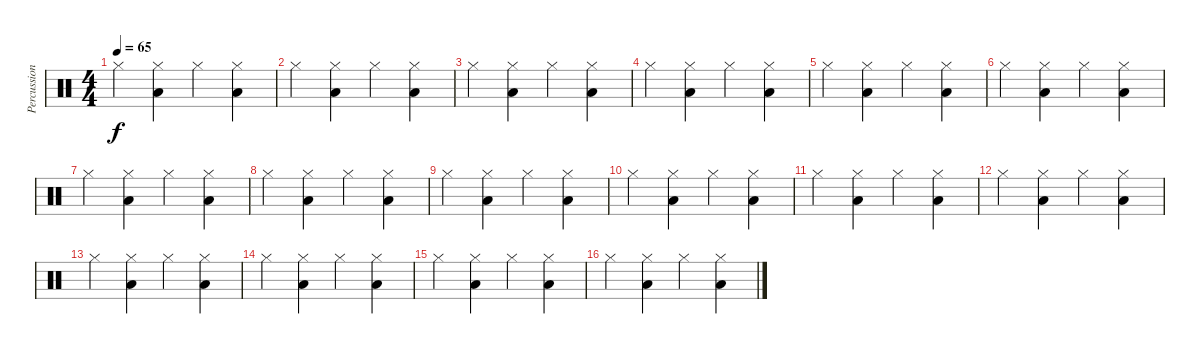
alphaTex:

\track ("Percussions" "Percussion") {instrument percussion}
\staff {score}
\articulation defaults
\ts (4 4)
\tempo 65
\clef neutral
\ks c "Hi-Hat (closed)".4{dy f}
("Hi-Hat (closed)" "Low Floor Tom (hit)").4 "Hi-Hat (closed)".4 ("Hi-Hat (closed)" "Low Floor Tom (hit)").4 |
"Hi-Hat (closed)".4 ("Hi-Hat (closed)" "Low Floor Tom (hit)").4 "Hi-Hat (closed)".4 ("Hi-Hat (closed)" "Low Floor Tom (hit)").4 |
"Hi-Hat (closed)".4 ("Hi-Hat (closed)" "Low Floor Tom (hit)").4 "Hi-Hat (closed)".4 ("Hi-Hat (closed)" "Low Floor Tom (hit)").4 |
"Hi-Hat (closed)".4 ("Hi-Hat (closed)" "Low Floor Tom (hit)").4 "Hi-Hat (closed)".4 ("Hi-Hat (closed)" "Low Floor Tom (hit)").4 |
"Hi-Hat (closed)".4 ("Hi-Hat (closed)" "Low Floor Tom (hit)").4 "Hi-Hat (closed)".4 ("Hi-Hat (closed)" "Low Floor Tom (hit)").4 |
"Hi-Hat (closed)".4 ("Hi-Hat (closed)" "Low Floor Tom (hit)").4 "Hi-Hat (closed)".4 ("Hi-Hat (closed)" "Low Floor Tom (hit)").4 |
"Hi-Hat (closed)".4 ("Hi-Hat (closed)" "Low Floor Tom (hit)").4 "Hi-Hat (closed)".4 ("Hi-Hat (closed)" "Low Floor Tom (hit)").4 |
"Hi-Hat (closed)".4 ("Hi-Hat (closed)" "Low Floor Tom (hit)").4 "Hi-Hat (closed)".4 ("Hi-Hat (closed)" "Low Floor Tom (hit)").4 |
"Hi-Hat (closed)".4 ("Hi-Hat (closed)" "Low Floor Tom (hit)").4 "Hi-Hat (closed)".4 ("Hi-Hat (closed)" "Low Floor Tom (hit)").4 |
"Hi-Hat (closed)".4 ("Hi-Hat (closed)" "Low Floor Tom (hit)").4 "Hi-Hat (closed)".4 ("Hi-Hat (closed)" "Low Floor Tom (hit)").4 |
"Hi-Hat (closed)".4 ("Hi-Hat (closed)" "Low Floor Tom (hit)").4 "Hi-Hat (closed)".4 ("Hi-Hat (closed)" "Low Floor Tom (hit)").4 |
"Hi-Hat (closed)".4 ("Hi-Hat (closed)" "Low Floor Tom (hit)").4 "Hi-Hat (closed)".4 ("Hi-Hat (closed)" "Low Floor Tom (hit)").4 |
"Hi-Hat (closed)".4 ("Hi-Hat (closed)" "Low Floor Tom (hit)").4 "Hi-Hat (closed)".4 ("Hi-Hat (closed)" "Low Floor Tom (hit)").4 |
"Hi-Hat (closed)".4 ("Hi-Hat (closed)" "Low Floor Tom (hit)").4 "Hi-Hat (closed)".4 ("Hi-Hat (closed)" "Low Floor Tom (hit)").4 |
"Hi-Hat (closed)".4 ("Hi-Hat (closed)" "Low Floor Tom (hit)").4 "Hi-Hat (closed)".4 ("Hi-Hat (closed)" "Low Floor Tom (hit)").4 |
"Hi-Hat (closed)".4 ("Hi-Hat (closed)" "Low Floor Tom (hit)").4 "Hi-Hat (closed)".4 ("Hi-Hat (closed)" "Low Floor Tom (hit)").4
